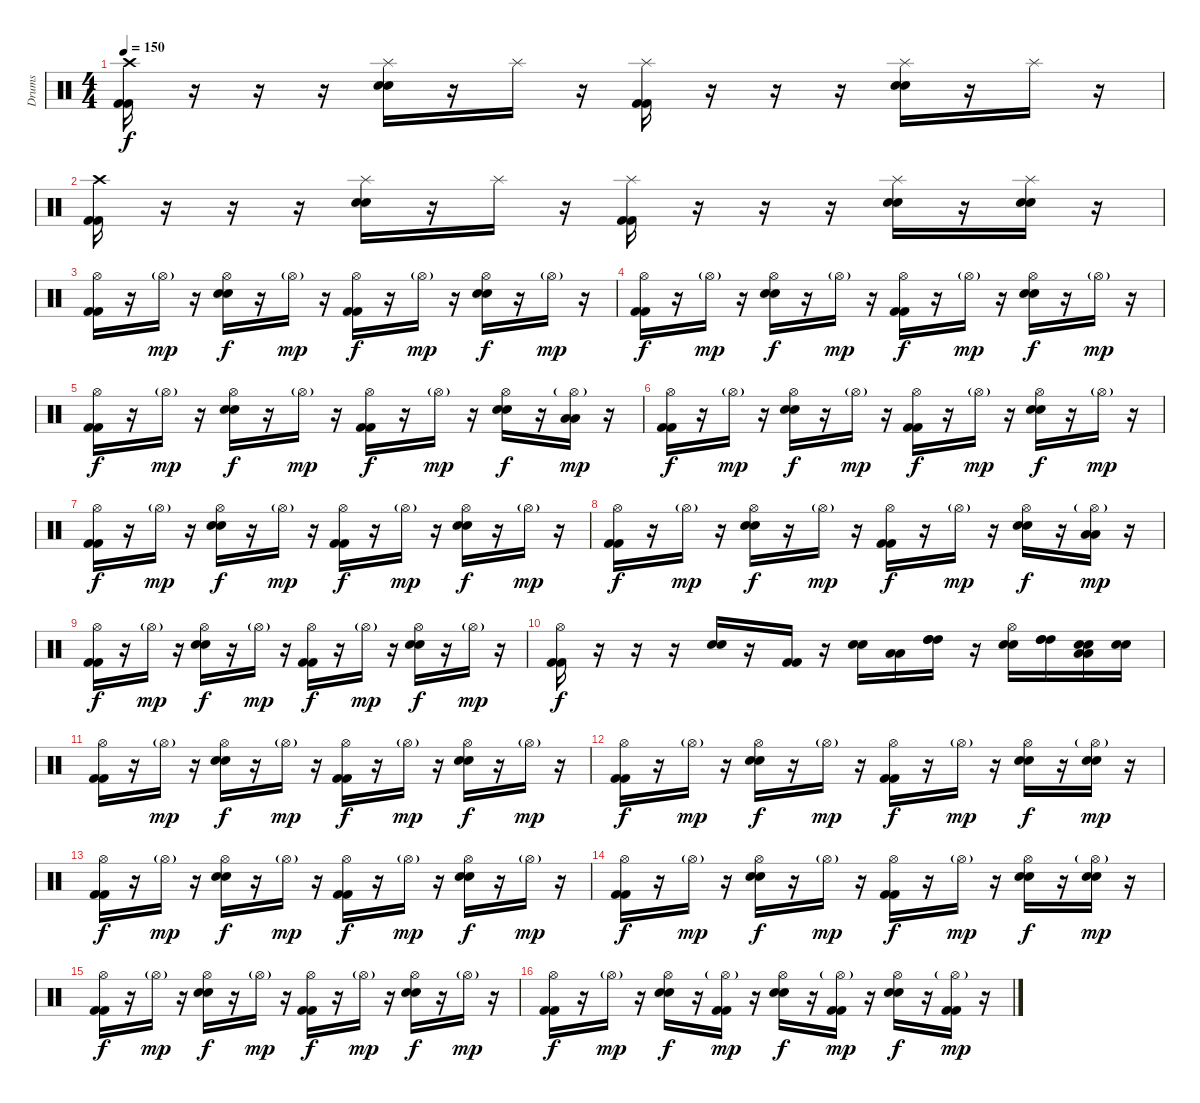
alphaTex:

\track ("Drums" "Drums") {instrument percussion}
\staff {score}
\articulation defaults
\ts (4 4)
\tempo 150
\clef neutral
\ks c
("Crash high (hit)" "Kick (hit) 2" "Kick (hit) 2").16{dy f} r.16 r.16 r.16 ("Splash (hit)" "Electric Snare (hit)" "Electric Snare (hit)").16 r.16 "Splash (hit)".16 r.16 ("Splash (hit)" "Kick (hit) 2" "Kick (hit) 2").16 r.16 r.16 r.16 ("Splash (hit)" "Electric Snare (hit)" "Electric Snare (hit)").16 r.16 "Splash (hit)".16 r.16 |
("Crash high (hit)" "Kick (hit) 2" "Kick (hit) 2").16 r.16 r.16 r.16 ("Splash (hit)" "Electric Snare (hit)" "Electric Snare (hit)").16 r.16 "Splash (hit)".16 r.16 ("Splash (hit)" "Kick (hit) 2" "Kick (hit) 2").16 r.16 r.16 r.16 ("Splash (hit)" "Electric Snare (hit)" "Electric Snare (hit)").16 r.16 ("Splash (hit)" "Electric Snare (hit)" "Electric Snare (hit)").16 r.16 |
("Hi-Hat (open)" "Kick (hit) 2" "Kick (hit) 2").16 r.16 "Hi-Hat (open)"{g}.16{dy mp} r.16 ("Hi-Hat (open)" "Electric Snare (hit)" "Electric Snare (hit)").16{dy f} r.16 "Hi-Hat (open)"{g}.16{dy mp} r.16 ("Hi-Hat (open)" "Kick (hit) 2" "Kick (hit) 2").16{dy f} r.16 "Hi-Hat (open)"{g}.16{dy mp} r.16 ("Hi-Hat (open)" "Electric Snare (hit)" "Electric Snare (hit)").16{dy f} r.16 "Hi-Hat (open)"{g}.16{dy mp} r.16 |
("Hi-Hat (open)" "Kick (hit) 2" "Kick (hit) 2").16{dy f} r.16 "Hi-Hat (open)"{g}.16{dy mp} r.16 ("Hi-Hat (open)" "Electric Snare (hit)" "Electric Snare (hit)").16{dy f} r.16 "Hi-Hat (open)"{g}.16{dy mp} r.16 ("Hi-Hat (open)" "Kick (hit) 2" "Kick (hit) 2").16{dy f} r.16 "Hi-Hat (open)"{g}.16{dy mp} r.16 ("Hi-Hat (open)" "Electric Snare (hit)" "Electric Snare (hit)").16{dy f} r.16 "Hi-Hat (open)"{g}.16{dy mp} r.16 |
("Hi-Hat (open)" "Kick (hit) 2" "Kick (hit) 2").16{dy f} r.16 "Hi-Hat (open)"{g}.16{dy mp} r.16 ("Hi-Hat (open)" "Electric Snare (hit)" "Electric Snare (hit)").16{dy f} r.16 "Hi-Hat (open)"{g}.16{dy mp} r.16 ("Hi-Hat (open)" "Kick (hit) 2" "Kick (hit) 2").16{dy f} r.16 "Hi-Hat (open)"{g}.16{dy mp} r.16 ("Hi-Hat (open)" "Electric Snare (hit)" "Electric Snare (hit)").16{dy f} r.16 ("Hi-Hat (open)"{g} "Low Tom (hit)" "Low Tom (hit)").16{dy mp} r.16 |
("Hi-Hat (open)" "Kick (hit) 2" "Kick (hit) 2").16{dy f} r.16 "Hi-Hat (open)"{g}.16{dy mp} r.16 ("Hi-Hat (open)" "Electric Snare (hit)" "Electric Snare (hit)").16{dy f} r.16 "Hi-Hat (open)"{g}.16{dy mp} r.16 ("Hi-Hat (open)" "Kick (hit) 2" "Kick (hit) 2").16{dy f} r.16 "Hi-Hat (open)"{g}.16{dy mp} r.16 ("Hi-Hat (open)" "Electric Snare (hit)" "Electric Snare (hit)").16{dy f} r.16 "Hi-Hat (open)"{g}.16{dy mp} r.16 |
("Hi-Hat (open)" "Kick (hit) 2" "Kick (hit) 2").16{dy f} r.16 "Hi-Hat (open)"{g}.16{dy mp} r.16 ("Hi-Hat (open)" "Electric Snare (hit)" "Electric Snare (hit)").16{dy f} r.16 "Hi-Hat (open)"{g}.16{dy mp} r.16 ("Hi-Hat (open)" "Kick (hit) 2" "Kick (hit) 2").16{dy f} r.16 "Hi-Hat (open)"{g}.16{dy mp} r.16 ("Hi-Hat (open)" "Electric Snare (hit)" "Electric Snare (hit)").16{dy f} r.16 "Hi-Hat (open)"{g}.16{dy mp} r.16 |
("Hi-Hat (open)" "Kick (hit) 2" "Kick (hit) 2").16{dy f} r.16 "Hi-Hat (open)"{g}.16{dy mp} r.16 ("Hi-Hat (open)" "Electric Snare (hit)" "Electric Snare (hit)").16{dy f} r.16 "Hi-Hat (open)"{g}.16{dy mp} r.16 ("Hi-Hat (open)" "Kick (hit) 2" "Kick (hit) 2").16{dy f} r.16 "Hi-Hat (open)"{g}.16{dy mp} r.16 ("Hi-Hat (open)" "Electric Snare (hit)" "Electric Snare (hit)").16{dy f} r.16 ("Hi-Hat (open)"{g} "Low Tom (hit)" "Low Tom (hit)").16{dy mp} r.16 |
("Hi-Hat (open)" "Kick (hit) 2" "Kick (hit) 2").16{dy f} r.16 "Hi-Hat (open)"{g}.16{dy mp} r.16 ("Hi-Hat (open)" "Electric Snare (hit)" "Electric Snare (hit)").16{dy f} r.16 "Hi-Hat (open)"{g}.16{dy mp} r.16 ("Hi-Hat (open)" "Kick (hit) 2" "Kick (hit) 2").16{dy f} r.16 "Hi-Hat (open)"{g}.16{dy mp} r.16 ("Hi-Hat (open)" "Electric Snare (hit)" "Electric Snare (hit)").16{dy f} r.16 "Hi-Hat (open)"{g}.16{dy mp} r.16 |
("Hi-Hat (open)" "Kick (hit) 2" "Kick (hit) 2").16{dy f} r.16 r.16 r.16 ("Electric Snare (hit)" "Electric Snare (hit)").16 r.16 ("Kick (hit) 2" "Kick (hit) 2").16 r.16 ("Electric Snare (hit)" "Electric Snare (hit)").16 ("Low Tom (hit)" "Low Tom (hit)").16 ("High Tom (hit)" "High Tom (hit)" "High Tom (hit)").16 r.16 ("Hi-Hat (open)" "Electric Snare (hit)" "Electric Snare (hit)").16 ("High Tom (hit)" "High Tom (hit)" "High Tom (hit)").16 ("Low Tom (hit)" "Low Tom (hit)" "Electric Snare (hit)" "Electric Snare (hit)").16 ("Electric Snare (hit)" "Electric Snare (hit)").16 |
("Hi-Hat (open)" "Kick (hit) 2" "Kick (hit) 2").16 r.16 "Hi-Hat (open)"{g}.16{dy mp} r.16 ("Hi-Hat (open)" "Electric Snare (hit)" "Electric Snare (hit)").16{dy f} r.16 "Hi-Hat (open)"{g}.16{dy mp} r.16 ("Hi-Hat (open)" "Kick (hit) 2" "Kick (hit) 2").16{dy f} r.16 "Hi-Hat (open)"{g}.16{dy mp} r.16 ("Hi-Hat (open)" "Electric Snare (hit)" "Electric Snare (hit)").16{dy f} r.16 "Hi-Hat (open)"{g}.16{dy mp} r.16 |
("Hi-Hat (open)" "Kick (hit) 2" "Kick (hit) 2").16{dy f} r.16 "Hi-Hat (open)"{g}.16{dy mp} r.16 ("Hi-Hat (open)" "Electric Snare (hit)" "Electric Snare (hit)").16{dy f} r.16 "Hi-Hat (open)"{g}.16{dy mp} r.16 ("Hi-Hat (open)" "Kick (hit) 2" "Kick (hit) 2").16{dy f} r.16 "Hi-Hat (open)"{g}.16{dy mp} r.16 ("Hi-Hat (open)" "Electric Snare (hit)" "Electric Snare (hit)").16{dy f} r.16 ("Hi-Hat (open)"{g} "Electric Snare (hit)" "Electric Snare (hit)").16{dy mp} r.16 |
("Hi-Hat (open)" "Kick (hit) 2" "Kick (hit) 2").16{dy f} r.16 "Hi-Hat (open)"{g}.16{dy mp} r.16 ("Hi-Hat (open)" "Electric Snare (hit)" "Electric Snare (hit)").16{dy f} r.16 "Hi-Hat (open)"{g}.16{dy mp} r.16 ("Hi-Hat (open)" "Kick (hit) 2" "Kick (hit) 2").16{dy f} r.16 "Hi-Hat (open)"{g}.16{dy mp} r.16 ("Hi-Hat (open)" "Electric Snare (hit)" "Electric Snare (hit)").16{dy f} r.16 "Hi-Hat (open)"{g}.16{dy mp} r.16 |
("Hi-Hat (open)" "Kick (hit) 2" "Kick (hit) 2").16{dy f} r.16 "Hi-Hat (open)"{g}.16{dy mp} r.16 ("Hi-Hat (open)" "Electric Snare (hit)" "Electric Snare (hit)").16{dy f} r.16 "Hi-Hat (open)"{g}.16{dy mp} r.16 ("Hi-Hat (open)" "Kick (hit) 2" "Kick (hit) 2").16{dy f} r.16 "Hi-Hat (open)"{g}.16{dy mp} r.16 ("Hi-Hat (open)" "Electric Snare (hit)" "Electric Snare (hit)").16{dy f} r.16 ("Hi-Hat (open)"{g} "Electric Snare (hit)" "Electric Snare (hit)").16{dy mp} r.16 |
("Hi-Hat (open)" "Kick (hit) 2" "Kick (hit) 2").16{dy f} r.16 "Hi-Hat (open)"{g}.16{dy mp} r.16 ("Hi-Hat (open)" "Electric Snare (hit)" "Electric Snare (hit)").16{dy f} r.16 "Hi-Hat (open)"{g}.16{dy mp} r.16 ("Hi-Hat (open)" "Kick (hit) 2" "Kick (hit) 2").16{dy f} r.16 "Hi-Hat (open)"{g}.16{dy mp} r.16 ("Hi-Hat (open)" "Electric Snare (hit)" "Electric Snare (hit)").16{dy f} r.16 "Hi-Hat (open)"{g}.16{dy mp} r.16 |
("Hi-Hat (open)" "Kick (hit) 2" "Kick (hit) 2").16{dy f} r.16 "Hi-Hat (open)"{g}.16{dy mp} r.16 ("Hi-Hat (open)" "Electric Snare (hit)" "Electric Snare (hit)").16{dy f} r.16 ("Hi-Hat (open)"{g} "Kick (hit) 2" "Kick (hit) 2").16{dy mp} r.16 ("Hi-Hat (open)" "Electric Snare (hit)" "Electric Snare (hit)").16{dy f} r.16 ("Hi-Hat (open)"{g} "Kick (hit) 2" "Kick (hit) 2").16{dy mp} r.16 ("Hi-Hat (open)" "Electric Snare (hit)" "Electric Snare (hit)").16{dy f} r.16 ("Hi-Hat (open)"{g} "Kick (hit) 2" "Kick (hit) 2").16{dy mp} r.16
